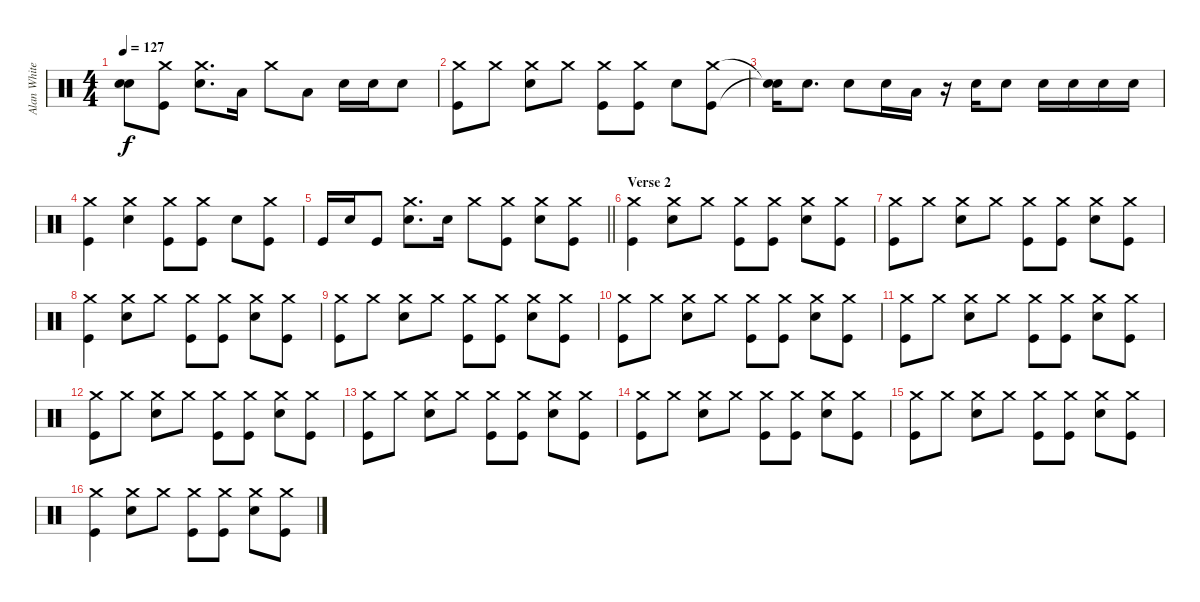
\track ("Alan White (Percussion)" "Alan White") {instrument percussion}
\staff {score}
\articulation defaults
\ts (4 4)
\tempo 127
\clef neutral
\ks c
("Snare (hit)"{t} "Snare (hit)"{t}).8{dy f} ("Crash medium (hit)" "Kick (hit)").8 ("Crash medium (hit)" "Snare (hit) 2").8{d} "Low Tom (hit)".16 "Crash medium (hit)".8 "Low Tom (hit)".8 "Snare (hit) 2".16 "Snare (hit) 2".16 "Snare (hit) 2".8 |
("Crash medium (hit)" "Kick (hit)").8 "Crash medium (hit)".8 ("Crash medium (hit)" "Snare (hit) 2").8 "Crash medium (hit)".8 ("Crash medium (hit)" "Kick (hit)").8 ("Crash medium (hit)" "Kick (hit)").8 "Snare (hit) 2".8 ("Crash medium (hit)" "Kick (hit)").8 |
("Snare (hit)"{t} "Snare (hit)"{t}).16 "Snare (hit) 2".8{d} "Snare (hit) 2".8 "Snare (hit) 2".16 "Low Tom (hit)".16 r.16 "Snare (hit) 2".16 "Snare (hit) 2".8 "Snare (hit) 2".16 "Snare (hit) 2".16 "Snare (hit) 2".16 "Snare (hit) 2".16 |
("Crash medium (hit)" "Kick (hit)").4 ("Crash medium (hit)" "Snare (hit) 2").4 ("Crash medium (hit)" "Kick (hit)").8 ("Crash medium (hit)" "Kick (hit)").8 "Snare (hit) 2".8 ("Crash medium (hit)" "Kick (hit)").8 |
\barLineRight lightlight "Kick (hit)".16 "Snare (hit) 2".16 "Kick (hit)".8
("Crash medium (hit)" "Snare (hit) 2").8{d} "Snare (hit) 2".16 "Crash medium (hit)".8 ("Crash medium (hit)" "Kick (hit)").8 ("Crash medium (hit)" "Snare (hit) 2").8 ("Crash medium (hit)" "Kick (hit)").8 |
\section ("" "Verse 2")
("Crash medium (hit)" "Kick (hit)").4 ("Crash medium (hit)" "Snare (hit) 2").8 "Crash medium (hit)".8 ("Crash medium (hit)" "Kick (hit)").8 ("Crash medium (hit)" "Kick (hit)").8 ("Crash medium (hit)" "Snare (hit) 2").8 ("Crash medium (hit)" "Kick (hit)").8 |
("Crash medium (hit)" "Kick (hit)").8 "Crash medium (hit)".8 ("Crash medium (hit)" "Snare (hit) 2").8 "Crash medium (hit)".8 ("Crash medium (hit)" "Kick (hit)").8 ("Crash medium (hit)" "Kick (hit)").8 ("Crash medium (hit)" "Snare (hit) 2").8 ("Crash medium (hit)" "Kick (hit)").8 |
("Crash medium (hit)" "Kick (hit)").4 ("Crash medium (hit)" "Snare (hit) 2").8 "Crash medium (hit)".8 ("Crash medium (hit)" "Kick (hit)").8 ("Crash medium (hit)" "Kick (hit)").8 ("Crash medium (hit)" "Snare (hit) 2").8 ("Crash medium (hit)" "Kick (hit)").8 |
("Crash medium (hit)" "Kick (hit)").8 "Crash medium (hit)".8 ("Crash medium (hit)" "Snare (hit) 2").8 "Crash medium (hit)".8 ("Crash medium (hit)" "Kick (hit)").8 ("Crash medium (hit)" "Kick (hit)").8 ("Crash medium (hit)" "Snare (hit) 2").8 ("Crash medium (hit)" "Kick (hit)").8 |
("Crash medium (hit)" "Kick (hit)").8 "Crash medium (hit)".8 ("Crash medium (hit)" "Snare (hit) 2").8 "Crash medium (hit)".8 ("Crash medium (hit)" "Kick (hit)").8 ("Crash medium (hit)" "Kick (hit)").8 ("Crash medium (hit)" "Snare (hit) 2").8 ("Crash medium (hit)" "Kick (hit)").8 |
("Crash medium (hit)" "Kick (hit)").8 "Crash medium (hit)".8 ("Crash medium (hit)" "Snare (hit) 2").8 "Crash medium (hit)".8 ("Crash medium (hit)" "Kick (hit)").8 ("Crash medium (hit)" "Kick (hit)").8 ("Crash medium (hit)" "Snare (hit) 2").8 ("Crash medium (hit)" "Kick (hit)").8 |
("Crash medium (hit)" "Kick (hit)").8 "Crash medium (hit)".8 ("Crash medium (hit)" "Snare (hit) 2").8 "Crash medium (hit)".8 ("Crash medium (hit)" "Kick (hit)").8 ("Crash medium (hit)" "Kick (hit)").8 ("Crash medium (hit)" "Snare (hit) 2").8 ("Crash medium (hit)" "Kick (hit)").8 |
("Crash medium (hit)" "Kick (hit)").8 "Crash medium (hit)".8 ("Crash medium (hit)" "Snare (hit) 2").8 "Crash medium (hit)".8 ("Crash medium (hit)" "Kick (hit)").8 ("Crash medium (hit)" "Kick (hit)").8 ("Crash medium (hit)" "Snare (hit) 2").8 ("Crash medium (hit)" "Kick (hit)").8 |
("Crash medium (hit)" "Kick (hit)").8 "Crash medium (hit)".8 ("Crash medium (hit)" "Snare (hit) 2").8 "Crash medium (hit)".8 ("Crash medium (hit)" "Kick (hit)").8 ("Crash medium (hit)" "Kick (hit)").8 ("Crash medium (hit)" "Snare (hit) 2").8 ("Crash medium (hit)" "Kick (hit)").8 |
("Crash medium (hit)" "Kick (hit)").8 "Crash medium (hit)".8 ("Crash medium (hit)" "Snare (hit) 2").8 "Crash medium (hit)".8 ("Crash medium (hit)" "Kick (hit)").8 ("Crash medium (hit)" "Kick (hit)").8 ("Crash medium (hit)" "Snare (hit) 2").8 ("Crash medium (hit)" "Kick (hit)").8 |
("Crash medium (hit)" "Kick (hit)").4 ("Crash medium (hit)" "Snare (hit) 2").8 "Crash medium (hit)".8 ("Crash medium (hit)" "Kick (hit)").8 ("Crash medium (hit)" "Kick (hit)").8 ("Crash medium (hit)" "Snare (hit) 2").8 ("Crash medium (hit)" "Kick (hit)").8
